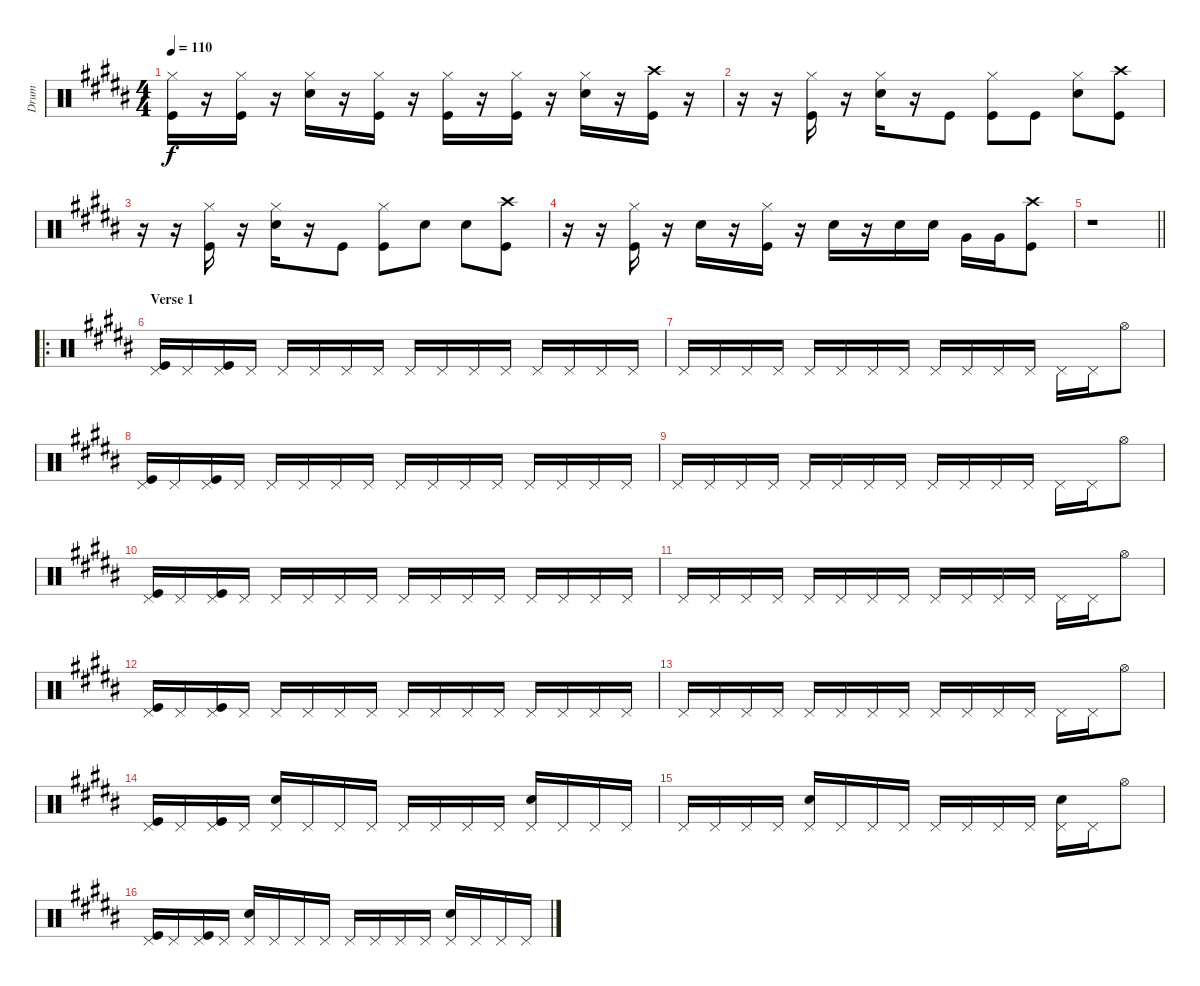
\track ("Drum" "Drum") {instrument percussion}
\staff {score}
\articulation defaults
\ts (4 4)
\tempo 110
\clef neutral
\ks g#minor
("Kick (hit)" "Hi-Hat (closed)").16{dy f} r.16 ("Kick (hit)" "Hi-Hat (closed)").16 r.16 ("Snare (hit) 2" "Hi-Hat (closed)").16 r.16 ("Kick (hit)" "Hi-Hat (closed)").16 r.16 ("Kick (hit)" "Hi-Hat (closed)").16 r.16 ("Kick (hit)" "Hi-Hat (closed)").16 r.16 ("Snare (hit) 2" "Hi-Hat (closed)").16 r.16 ("Kick (hit)" "Crash high (hit)").16 r.16 |
r.16 r.16 ("Kick (hit)" "Hi-Hat (closed)").16 r.16 ("Snare (hit) 2" "Hi-Hat (closed)").16 r.16 "Kick (hit)".8 ("Kick (hit)" "Hi-Hat (closed)").8 "Kick (hit)".8 ("Snare (hit) 2" "Hi-Hat (closed)").8 ("Kick (hit)" "Crash high (hit)").8 |
\ks b
r.16 r.16 ("Kick (hit)" "Hi-Hat (closed)").16 r.16 ("Snare (hit) 2" "Hi-Hat (closed)").16 r.16 "Kick (hit)".8 ("Kick (hit)" "Hi-Hat (closed)").8 "Snare (hit) 2".8 "Snare (hit) 2".8 ("Kick (hit)" "Crash high (hit)").8 |
\ks g#minor
r.16 r.16 ("Kick (hit)" "Hi-Hat (closed)").16 r.16 "Snare (hit) 2".16 r.16 ("Kick (hit)" "Hi-Hat (closed)").16 r.16 "Snare (hit) 2".16 r.16 "Snare (hit) 2".16 "Snare (hit) 2".16 "Very Low Tom (hit)".16 "Very Low Tom (hit)".16 ("Kick (hit)" "Crash high (hit)").8 |
\barLineRight lightlight
r.1 |
\ro
\section ("" "Verse 1")
\ks b
("Pedal Hi-Hat (hit)" "Kick (hit)").16 "Pedal Hi-Hat (hit)".16 ("Pedal Hi-Hat (hit)" "Kick (hit)").16 "Pedal Hi-Hat (hit)".16 "Pedal Hi-Hat (hit)".16 "Pedal Hi-Hat (hit)".16 "Pedal Hi-Hat (hit)".16 "Pedal Hi-Hat (hit)".16 "Pedal Hi-Hat (hit)".16 "Pedal Hi-Hat (hit)".16 "Pedal Hi-Hat (hit)".16 "Pedal Hi-Hat (hit)".16 "Pedal Hi-Hat (hit)".16 "Pedal Hi-Hat (hit)".16 "Pedal Hi-Hat (hit)".16 "Pedal Hi-Hat (hit)".16 |
\ks g#minor "Pedal Hi-Hat (hit)".16 "Pedal Hi-Hat (hit)".16 "Pedal Hi-Hat (hit)".16 "Pedal Hi-Hat (hit)".16 "Pedal Hi-Hat (hit)".16 "Pedal Hi-Hat (hit)".16 "Pedal Hi-Hat (hit)".16 "Pedal Hi-Hat (hit)".16 "Pedal Hi-Hat (hit)".16 "Pedal Hi-Hat (hit)".16 "Pedal Hi-Hat (hit)".16 "Pedal Hi-Hat (hit)".16 "Pedal Hi-Hat (hit)".16 "Pedal Hi-Hat (hit)".16 "Hi-Hat (open)".8
|
("Pedal Hi-Hat (hit)" "Kick (hit)").16 "Pedal Hi-Hat (hit)".16 ("Pedal Hi-Hat (hit)" "Kick (hit)").16 "Pedal Hi-Hat (hit)".16 "Pedal Hi-Hat (hit)".16 "Pedal Hi-Hat (hit)".16 "Pedal Hi-Hat (hit)".16 "Pedal Hi-Hat (hit)".16 "Pedal Hi-Hat (hit)".16 "Pedal Hi-Hat (hit)".16 "Pedal Hi-Hat (hit)".16 "Pedal Hi-Hat (hit)".16 "Pedal Hi-Hat (hit)".16 "Pedal Hi-Hat (hit)".16 "Pedal Hi-Hat (hit)".16 "Pedal Hi-Hat (hit)".16 |
"Pedal Hi-Hat (hit)".16 "Pedal Hi-Hat (hit)".16 "Pedal Hi-Hat (hit)".16 "Pedal Hi-Hat (hit)".16 "Pedal Hi-Hat (hit)".16 "Pedal Hi-Hat (hit)".16 "Pedal Hi-Hat (hit)".16 "Pedal Hi-Hat (hit)".16 "Pedal Hi-Hat (hit)".16 "Pedal Hi-Hat (hit)".16 "Pedal Hi-Hat (hit)".16 "Pedal Hi-Hat (hit)".16 "Pedal Hi-Hat (hit)".16 "Pedal Hi-Hat (hit)".16 "Hi-Hat (open)".8 |
\ks b
("Pedal Hi-Hat (hit)" "Kick (hit)").16 "Pedal Hi-Hat (hit)".16 ("Pedal Hi-Hat (hit)" "Kick (hit)").16 "Pedal Hi-Hat (hit)".16 "Pedal Hi-Hat (hit)".16 "Pedal Hi-Hat (hit)".16 "Pedal Hi-Hat (hit)".16 "Pedal Hi-Hat (hit)".16 "Pedal Hi-Hat (hit)".16 "Pedal Hi-Hat (hit)".16 "Pedal Hi-Hat (hit)".16 "Pedal Hi-Hat (hit)".16 "Pedal Hi-Hat (hit)".16 "Pedal Hi-Hat (hit)".16 "Pedal Hi-Hat (hit)".16 "Pedal Hi-Hat (hit)".16 |
\ks g#minor "Pedal Hi-Hat (hit)".16 "Pedal Hi-Hat (hit)".16 "Pedal Hi-Hat (hit)".16 "Pedal Hi-Hat (hit)".16 "Pedal Hi-Hat (hit)".16 "Pedal Hi-Hat (hit)".16 "Pedal Hi-Hat (hit)".16 "Pedal Hi-Hat (hit)".16 "Pedal Hi-Hat (hit)".16 "Pedal Hi-Hat (hit)".16 "Pedal Hi-Hat (hit)".16 "Pedal Hi-Hat (hit)".16 "Pedal Hi-Hat (hit)".16 "Pedal Hi-Hat (hit)".16 "Hi-Hat (open)".8
|
\ks b
("Pedal Hi-Hat (hit)" "Kick (hit)").16 "Pedal Hi-Hat (hit)".16 ("Pedal Hi-Hat (hit)" "Kick (hit)").16 "Pedal Hi-Hat (hit)".16 "Pedal Hi-Hat (hit)".16 "Pedal Hi-Hat (hit)".16 "Pedal Hi-Hat (hit)".16 "Pedal Hi-Hat (hit)".16 "Pedal Hi-Hat (hit)".16 "Pedal Hi-Hat (hit)".16 "Pedal Hi-Hat (hit)".16 "Pedal Hi-Hat (hit)".16 "Pedal Hi-Hat (hit)".16 "Pedal Hi-Hat (hit)".16 "Pedal Hi-Hat (hit)".16 "Pedal Hi-Hat (hit)".16 |
\ks g#minor "Pedal Hi-Hat (hit)".16 "Pedal Hi-Hat (hit)".16 "Pedal Hi-Hat (hit)".16 "Pedal Hi-Hat (hit)".16 "Pedal Hi-Hat (hit)".16 "Pedal Hi-Hat (hit)".16 "Pedal Hi-Hat (hit)".16 "Pedal Hi-Hat (hit)".16 "Pedal Hi-Hat (hit)".16 "Pedal Hi-Hat (hit)".16 "Pedal Hi-Hat (hit)".16 "Pedal Hi-Hat (hit)".16 "Pedal Hi-Hat (hit)".16 "Pedal Hi-Hat (hit)".16 "Hi-Hat (open)".8
|
\ks b
("Pedal Hi-Hat (hit)" "Kick (hit)").16 "Pedal Hi-Hat (hit)".16 ("Pedal Hi-Hat (hit)" "Kick (hit)").16 "Pedal Hi-Hat (hit)".16 ("Pedal Hi-Hat (hit)" "Snare (hit) 2").16 "Pedal Hi-Hat (hit)".16 "Pedal Hi-Hat (hit)".16 "Pedal Hi-Hat (hit)".16 "Pedal Hi-Hat (hit)".16 "Pedal Hi-Hat (hit)".16 "Pedal Hi-Hat (hit)".16 "Pedal Hi-Hat (hit)".16 ("Pedal Hi-Hat (hit)" "Snare (hit) 2").16 "Pedal Hi-Hat (hit)".16 "Pedal Hi-Hat (hit)".16 "Pedal Hi-Hat (hit)".16 |
\ks g#minor "Pedal Hi-Hat (hit)".16 "Pedal Hi-Hat (hit)".16 "Pedal Hi-Hat (hit)".16 "Pedal Hi-Hat (hit)".16
("Pedal Hi-Hat (hit)" "Snare (hit) 2").16 "Pedal Hi-Hat (hit)".16 "Pedal Hi-Hat (hit)".16 "Pedal Hi-Hat (hit)".16 "Pedal Hi-Hat (hit)".16 "Pedal Hi-Hat (hit)".16 "Pedal Hi-Hat (hit)".16 "Pedal Hi-Hat (hit)".16 ("Pedal Hi-Hat (hit)" "Snare (hit) 2").16 "Pedal Hi-Hat (hit)".16 "Hi-Hat (open)".8 |
("Pedal Hi-Hat (hit)" "Kick (hit)").16 "Pedal Hi-Hat (hit)".16 ("Pedal Hi-Hat (hit)" "Kick (hit)").16 "Pedal Hi-Hat (hit)".16 ("Pedal Hi-Hat (hit)" "Snare (hit) 2").16 "Pedal Hi-Hat (hit)".16 "Pedal Hi-Hat (hit)".16 "Pedal Hi-Hat (hit)".16 "Pedal Hi-Hat (hit)".16 "Pedal Hi-Hat (hit)".16 "Pedal Hi-Hat (hit)".16 "Pedal Hi-Hat (hit)".16 ("Pedal Hi-Hat (hit)" "Snare (hit) 2").16 "Pedal Hi-Hat (hit)".16 "Pedal Hi-Hat (hit)".16 "Pedal Hi-Hat (hit)".16
